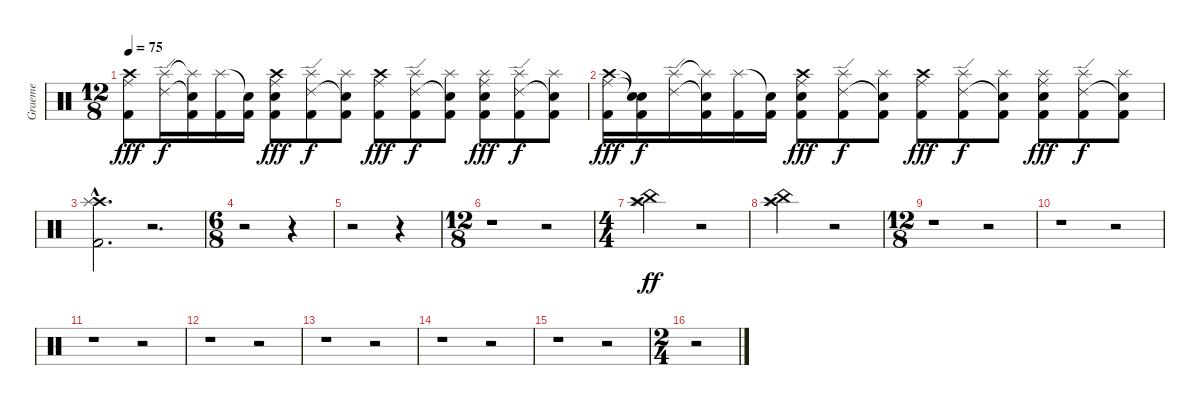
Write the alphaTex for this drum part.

\track ("Graeme" "Graeme") {instrument percussion}
\staff {score}
\articulation defaults
\ts (12 8)
\tempo 75
\clef neutral
\ks c
("Crash high (hit)" "Ride (middle)" "Kick (hit) 2").8{dy fff} ("Splash (hit)" "Ride (edge) 2").16{dy f} ("Splash (hit)"{t} "Snare (hit)"{t} "Kick (hit) 2").16 ("Splash (hit)" "Kick (hit) 2").16 ("Snare (hit)"{t} "Kick (hit) 2").16 ("Crash high (hit)" "Ride (middle)" "Electric Snare (hit)" "Kick (hit) 2").8{dy fff} ("Splash (hit)" "Ride (edge) 2" "Kick (hit) 2").8{dy f} ("Splash (hit)" "Snare (hit)"{t} "Kick (hit) 2").8 ("Crash high (hit)" "Ride (middle)" "Kick (hit) 2").8{dy fff} ("Splash (hit)" "Ride (edge) 2" "Kick (hit) 2").8{dy f} ("Splash (hit)" "Snare (hit)"{t} "Kick (hit) 2").8 ("Splash (hit)" "Ride (middle)" "Electric Snare (hit)" "Kick (hit) 2").8{dy fff} ("Splash (hit)" "Ride (edge) 2" "Kick (hit) 2").8{dy f} ("Splash (hit)" "Snare (hit)"{t} "Kick (hit) 2").8 |
("Crash high (hit)" "Ride (middle)" "Kick (hit) 2").16{dy fff} ("Snare (hit)"{t} "Snare (hit)"{t} "Kick (hit) 2").16{dy f} ("Splash (hit)" "Ride (edge) 2").16 ("Splash (hit)"{t} "Snare (hit)"{t} "Kick (hit) 2").16 ("Splash (hit)" "Kick (hit) 2").16 ("Snare (hit)"{t} "Kick (hit) 2").16 ("Crash high (hit)" "Ride (middle)" "Electric Snare (hit)" "Kick (hit) 2").8{dy fff} ("Splash (hit)" "Ride (edge) 2" "Kick (hit) 2").8{dy f} ("Splash (hit)" "Snare (hit)"{t} "Kick (hit) 2").8 ("Crash high (hit)" "Ride (middle)" "Kick (hit) 2").8{dy fff} ("Splash (hit)" "Ride (edge) 2" "Kick (hit) 2").8{dy f} ("Splash (hit)" "Snare (hit)"{t} "Kick (hit) 2").8 ("Splash (hit)" "Ride (middle)" "Electric Snare (hit)" "Kick (hit) 2").8{dy fff} ("Splash (hit)" "Ride (edge) 2" "Kick (hit) 2").8{dy f} ("Splash (hit)" "Snare (hit)"{t} "Kick (hit) 2").8 |
("Crash high (hit)"{hac} "Splash (hit)"{hac} "Kick (hit) 2"{hac}).2{d} r.2{d} |
\ts (6 8)
r.2 r.4 |
r.2 r.4 |
\ts (12 8)
r.1 r.2 |
\ts (4 4)
("China (hit)" "Crash high (hit)" "Splash (hit)").2{dy ff} r.2 |
("China (hit)" "Crash high (hit)" "Splash (hit)").2 r.2 |
\ts (12 8)
r.1 r.2 |
r.1 r.2 |
r.1 r.2 |
r.1 r.2 |
r.1 r.2 |
r.1 r.2 |
r.1 r.2 |
\ts (2 4)
r.2
